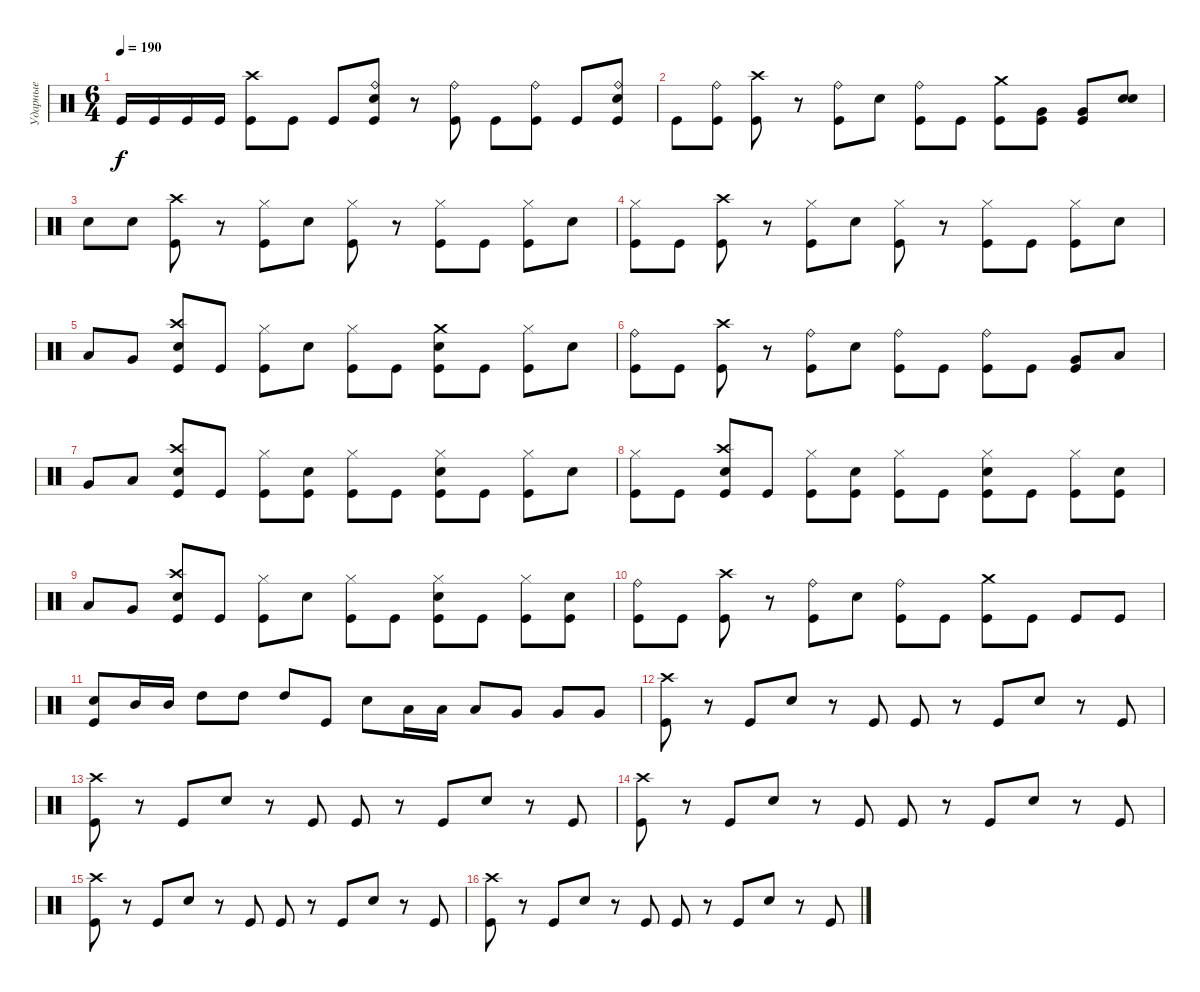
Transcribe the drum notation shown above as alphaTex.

\track ("Ударные" "Ударные") {instrument percussion}
\staff {score}
\articulation defaults
\ts (6 4)
\tempo 190
\clef neutral
\ks c "Kick (hit)".16{dy f} "Kick (hit)".16 "Kick (hit)".16 "Kick (hit)".16
("Crash high (hit)" "Kick (hit)").8 "Kick (hit)".8 "Kick (hit)".8 ("Ride (bell)" "Electric Snare (hit)" "Kick (hit)").8 r.8 ("Ride (bell)" "Kick (hit)").8 "Kick (hit)".8 ("Ride (bell)" "Kick (hit)").8 "Kick (hit)".8 ("Ride (bell)" "Electric Snare (hit)" "Kick (hit)").8 |
"Kick (hit)".8 ("Ride (bell)" "Kick (hit)").8 ("Crash high (hit)" "Kick (hit)").8 r.8 ("Ride (bell)" "Kick (hit)").8 "Electric Snare (hit)".8 ("Ride (bell)" "Kick (hit)").8 "Kick (hit)".8 ("Crash medium (hit)" "Kick (hit)").8 ("Very Low Tom (hit)" "Kick (hit)").8 ("Very Low Tom (hit)" "Kick (hit)").8 ("Electric Snare (hit)" "Electric Snare (hit)").8 |
"Electric Snare (hit)".8 "Electric Snare (hit)".8 ("Crash high (hit)" "Kick (hit)").8 r.8 ("Hi-Hat (closed)" "Kick (hit)").8 "Electric Snare (hit)".8 ("Hi-Hat (closed)" "Kick (hit)").8 r.8 ("Hi-Hat (closed)" "Kick (hit)").8 "Kick (hit)".8 ("Hi-Hat (closed)" "Kick (hit)").8 "Electric Snare (hit)".8 |
("Hi-Hat (closed)" "Kick (hit)").8 "Kick (hit)".8 ("Crash high (hit)" "Kick (hit)").8 r.8 ("Hi-Hat (closed)" "Kick (hit)").8 "Electric Snare (hit)".8 ("Hi-Hat (closed)" "Kick (hit)").8 r.8 ("Hi-Hat (closed)" "Kick (hit)").8 "Kick (hit)".8 ("Hi-Hat (closed)" "Kick (hit)").8 "Electric Snare (hit)".8 |
"Low Tom (hit)".8 "Very Low Tom (hit)".8 ("Crash high (hit)" "Electric Snare (hit)" "Kick (hit)").8 "Kick (hit)".8 ("Hi-Hat (closed)" "Kick (hit)").8 "Electric Snare (hit)".8 ("Hi-Hat (closed)" "Kick (hit)").8 "Kick (hit)".8 ("Crash medium (hit)" "Electric Snare (hit)" "Kick (hit)").8 "Kick (hit)".8 ("Hi-Hat (closed)" "Kick (hit)").8 "Electric Snare (hit)".8 |
("Ride (bell)" "Kick (hit)").8 "Kick (hit)".8 ("Crash high (hit)" "Kick (hit)").8 r.8 ("Ride (bell)" "Kick (hit)").8 "Electric Snare (hit)".8 ("Ride (bell)" "Kick (hit)").8 "Kick (hit)".8 ("Ride (bell)" "Kick (hit)").8 "Kick (hit)".8 ("Very Low Tom (hit)" "Kick (hit)").8 "Low Tom (hit)".8 |
"Very Low Tom (hit)".8 "Low Tom (hit)".8 ("Crash high (hit)" "Electric Snare (hit)" "Kick (hit)").8 "Kick (hit)".8 ("Hi-Hat (closed)" "Kick (hit)").8 ("Electric Snare (hit)" "Kick (hit)").8 ("Hi-Hat (closed)" "Kick (hit)").8 "Kick (hit)".8 ("Hi-Hat (closed)" "Electric Snare (hit)" "Kick (hit)").8 "Kick (hit)".8 ("Hi-Hat (closed)" "Kick (hit)").8 "Electric Snare (hit)".8 |
("Hi-Hat (closed)" "Kick (hit)").8 "Kick (hit)".8 ("Crash high (hit)" "Electric Snare (hit)" "Kick (hit)").8 "Kick (hit)".8 ("Hi-Hat (closed)" "Kick (hit)").8 ("Electric Snare (hit)" "Kick (hit)").8 ("Hi-Hat (closed)" "Kick (hit)").8 "Kick (hit)".8 ("Hi-Hat (closed)" "Electric Snare (hit)" "Kick (hit)").8 "Kick (hit)".8 ("Hi-Hat (closed)" "Kick (hit)").8 ("Electric Snare (hit)" "Kick (hit)").8 |
"Low Tom (hit)".8 "Very Low Tom (hit)".8 ("Crash high (hit)" "Electric Snare (hit)" "Kick (hit)").8 "Kick (hit)".8 ("Hi-Hat (closed)" "Kick (hit)").8 "Electric Snare (hit)".8 ("Hi-Hat (closed)" "Kick (hit)").8 "Kick (hit)".8 ("Hi-Hat (closed)" "Electric Snare (hit)" "Kick (hit)").8 "Kick (hit)".8 ("Hi-Hat (closed)" "Kick (hit)").8 ("Electric Snare (hit)" "Kick (hit)").8 |
("Ride (bell)" "Kick (hit)").8 "Kick (hit)".8 ("Crash high (hit)" "Kick (hit)").8 r.8 ("Ride (bell)" "Kick (hit)").8 "Electric Snare (hit)".8 ("Ride (bell)" "Kick (hit)").8 "Kick (hit)".8 ("Crash medium (hit)" "Kick (hit)").8 "Kick (hit)".8 "Kick (hit)".8 "Kick (hit)".8 |
("Electric Snare (hit)" "Kick (hit)").8 "Mid Tom (hit)".16 "Mid Tom (hit)".16 "High Tom (hit)".8 "High Tom (hit)".8 "High Tom (hit)".8 "Kick (hit)".8 "Electric Snare (hit)".8 "Low Tom (hit)".16 "Low Tom (hit)".16 "Low Tom (hit)".8 "Very Low Tom (hit)".8 "Very Low Tom (hit)".8 "Very Low Tom (hit)".8 |
("Crash high (hit)" "Kick (hit)").8 r.8 "Kick (hit)".8 "Electric Snare (hit)".8 r.8 "Kick (hit)".8 "Kick (hit)".8 r.8 "Kick (hit)".8 "Electric Snare (hit)".8 r.8 "Kick (hit)".8 |
("Crash high (hit)" "Kick (hit)").8 r.8 "Kick (hit)".8 "Electric Snare (hit)".8 r.8 "Kick (hit)".8 "Kick (hit)".8 r.8 "Kick (hit)".8 "Electric Snare (hit)".8 r.8 "Kick (hit)".8 |
("Crash high (hit)" "Kick (hit)").8 r.8 "Kick (hit)".8 "Electric Snare (hit)".8 r.8 "Kick (hit)".8 "Kick (hit)".8 r.8 "Kick (hit)".8 "Electric Snare (hit)".8 r.8 "Kick (hit)".8 |
("Crash high (hit)" "Kick (hit)").8 r.8 "Kick (hit)".8 "Electric Snare (hit)".8 r.8 "Kick (hit)".8 "Kick (hit)".8 r.8 "Kick (hit)".8 "Electric Snare (hit)".8 r.8 "Kick (hit)".8 |
("Crash high (hit)" "Kick (hit)").8 r.8 "Kick (hit)".8 "Electric Snare (hit)".8 r.8 "Kick (hit)".8 "Kick (hit)".8 r.8 "Kick (hit)".8 "Electric Snare (hit)".8 r.8 "Kick (hit)".8
